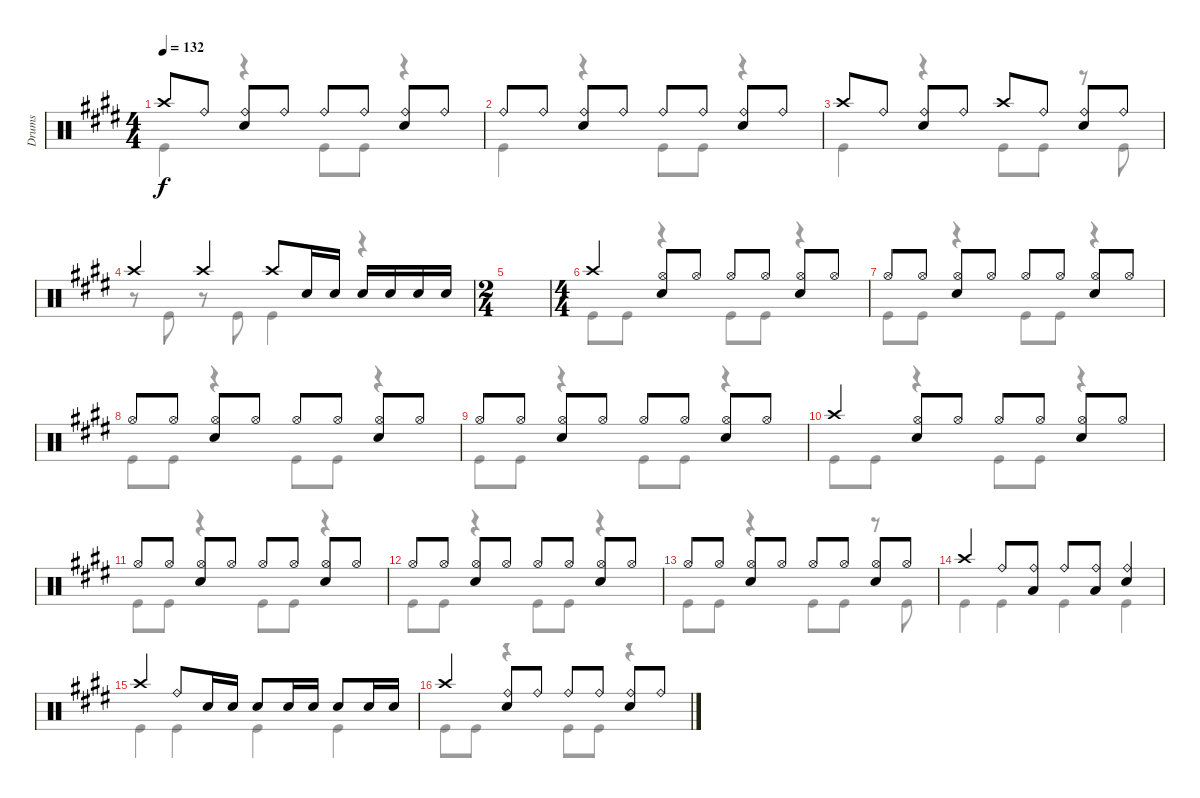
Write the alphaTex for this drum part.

\track ("Drums" "Drums") {instrument percussion}
\staff {score}
\articulation defaults
\voice
\ts (4 4)
\tempo 132
\clef neutral
\ks e "Crash high (hit)".8{dy f} "Ride (bell)".8
("Ride (bell)" "Snare (hit) 2").8 "Ride (bell)".8 "Ride (bell)".8 "Ride (bell)".8 ("Ride (bell)" "Snare (hit) 2").8 "Ride (bell)".8 |
"Ride (bell)".8 "Ride (bell)".8 ("Ride (bell)" "Snare (hit) 2").8 "Ride (bell)".8 "Ride (bell)".8 "Ride (bell)".8 ("Ride (bell)" "Snare (hit) 2").8 "Ride (bell)".8 |
"Crash high (hit)".8 "Ride (bell)".8 ("Ride (bell)" "Snare (hit) 2").8 "Ride (bell)".8 "Crash high (hit)".8 "Ride (bell)".8 ("Ride (bell)" "Snare (hit) 2").8 "Ride (bell)".8 |
"Crash high (hit)".4 "Crash high (hit)".4 "Crash high (hit)".8 "Snare (hit) 2".16 "Snare (hit) 2".16 "Snare (hit) 2".16 "Snare (hit) 2".16 "Snare (hit) 2".16 "Snare (hit) 2".16 |
\ts (2 4)
|
\ts (4 4)
"Crash high (hit)".4 ("Hi-Hat (open)" "Snare (hit) 2").8 "Hi-Hat (open)".8 "Hi-Hat (open)".8 "Hi-Hat (open)".8 ("Hi-Hat (open)" "Snare (hit) 2").8 "Hi-Hat (open)".8 |
"Hi-Hat (open)".8 "Hi-Hat (open)".8 ("Hi-Hat (open)" "Snare (hit) 2").8 "Hi-Hat (open)".8 "Hi-Hat (open)".8 "Hi-Hat (open)".8 ("Hi-Hat (open)" "Snare (hit) 2").8 "Hi-Hat (open)".8 |
"Hi-Hat (open)".8 "Hi-Hat (open)".8 ("Hi-Hat (open)" "Snare (hit) 2").8 "Hi-Hat (open)".8 "Hi-Hat (open)".8 "Hi-Hat (open)".8 ("Hi-Hat (open)" "Snare (hit) 2").8 "Hi-Hat (open)".8 |
"Hi-Hat (open)".8 "Hi-Hat (open)".8 ("Hi-Hat (open)" "Snare (hit) 2").8 "Hi-Hat (open)".8 "Hi-Hat (open)".8 "Hi-Hat (open)".8 ("Hi-Hat (open)" "Snare (hit) 2").8 "Hi-Hat (open)".8 |
"Crash high (hit)".4 ("Hi-Hat (open)" "Snare (hit) 2").8 "Hi-Hat (open)".8 "Hi-Hat (open)".8 "Hi-Hat (open)".8 ("Hi-Hat (open)" "Snare (hit) 2").8 "Hi-Hat (open)".8 |
"Hi-Hat (open)".8 "Hi-Hat (open)".8 ("Hi-Hat (open)" "Snare (hit) 2").8 "Hi-Hat (open)".8 "Hi-Hat (open)".8 "Hi-Hat (open)".8 ("Hi-Hat (open)" "Snare (hit) 2").8 "Hi-Hat (open)".8 |
"Hi-Hat (open)".8 "Hi-Hat (open)".8 ("Hi-Hat (open)" "Snare (hit) 2").8 "Hi-Hat (open)".8 "Hi-Hat (open)".8 "Hi-Hat (open)".8 ("Hi-Hat (open)" "Snare (hit) 2").8 "Hi-Hat (open)".8 |
"Hi-Hat (open)".8 "Hi-Hat (open)".8 ("Hi-Hat (open)" "Snare (hit) 2").8 "Hi-Hat (open)".8 "Hi-Hat (open)".8 "Hi-Hat (open)".8 ("Hi-Hat (open)" "Snare (hit) 2").8 "Hi-Hat (open)".8 |
"Crash high (hit)".4 "Ride (bell)".8 ("Ride (bell)" "Low Tom (hit)").8 "Ride (bell)".8 ("Ride (bell)" "Low Tom (hit)").8 ("Snare (hit) 2" "Ride (bell)").4 |
"Crash high (hit)".4 "Ride (bell)".8 "Snare (hit) 2".16 "Snare (hit) 2".16 "Snare (hit) 2".8 "Snare (hit) 2".16 "Snare (hit) 2".16 "Snare (hit) 2".8 "Snare (hit) 2".16 "Snare (hit) 2".16 |
"Crash high (hit)".4 ("Ride (bell)" "Snare (hit) 2").8 "Ride (bell)".8 "Ride (bell)".8 "Ride (bell)".8 ("Ride (bell)" "Snare (hit) 2").8 "Ride (bell)".8
\voice
\clef neutral
\ottava regular
\simile none
\ks e "Kick (hit)".4{dy f}
r.4 "Kick (hit)".8 "Kick (hit)".8 r.4 |
"Kick (hit)".4 r.4 "Kick (hit)".8 "Kick (hit)".8 r.4 |
"Kick (hit)".4 r.4 "Kick (hit)".8 "Kick (hit)".8 r.8 "Kick (hit)".8 |
r.8 "Kick (hit)".8 r.8 "Kick (hit)".8 "Kick (hit)".4 r.4 |
|
"Kick (hit)".8 "Kick (hit)".8 r.4 "Kick (hit)".8 "Kick (hit)".8 r.4 |
"Kick (hit)".8 "Kick (hit)".8 r.4 "Kick (hit)".8 "Kick (hit)".8 r.4 |
"Kick (hit)".8 "Kick (hit)".8 r.4 "Kick (hit)".8 "Kick (hit)".8 r.4 |
"Kick (hit)".8 "Kick (hit)".8 r.4 "Kick (hit)".8 "Kick (hit)".8 r.4 |
"Kick (hit)".8 "Kick (hit)".8 r.4 "Kick (hit)".8 "Kick (hit)".8 r.4 |
"Kick (hit)".8 "Kick (hit)".8 r.4 "Kick (hit)".8 "Kick (hit)".8 r.4 |
"Kick (hit)".8 "Kick (hit)".8 r.4 "Kick (hit)".8 "Kick (hit)".8 r.4 |
"Kick (hit)".8 "Kick (hit)".8 r.4 "Kick (hit)".8 "Kick (hit)".8 r.8 "Kick (hit)".8 |
"Kick (hit)".4 "Kick (hit)".4 "Kick (hit)".4 "Kick (hit)".4 |
"Kick (hit)".4 "Kick (hit)".4 "Kick (hit)".4 "Kick (hit)".4 |
"Kick (hit)".8 "Kick (hit)".8 r.4 "Kick (hit)".8 "Kick (hit)".8 r.4
